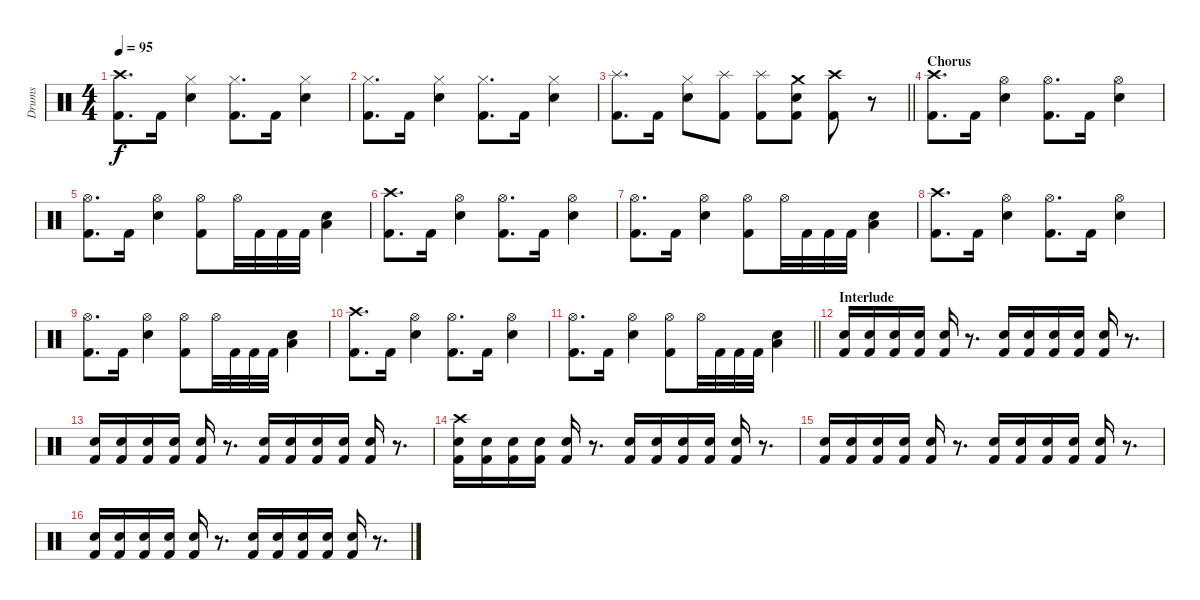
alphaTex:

\track ("Drums" "Drums") {instrument percussion}
\staff {score}
\articulation defaults
\ts (4 4)
\tempo 95
\clef neutral
\ks c
("Crash high (hit)" "Kick (hit) 2").8{d dy f} "Kick (hit) 2".16 ("Hi-Hat (closed)" "Snare (hit) 2").4 ("Hi-Hat (closed)" "Kick (hit) 2").8{d} "Kick (hit) 2".16 ("Hi-Hat (closed)" "Snare (hit) 2").4 |
("Hi-Hat (closed)" "Kick (hit) 2").8{d} "Kick (hit) 2".16 ("Hi-Hat (closed)" "Snare (hit) 2").4 ("Hi-Hat (closed)" "Kick (hit) 2").8{d} "Kick (hit) 2".16 ("Hi-Hat (closed)" "Snare (hit) 2").4 |
\barLineRight lightlight
("Splash (hit)" "Kick (hit) 2").8{d} "Kick (hit) 2".16 ("Hi-Hat (closed)" "Snare (hit) 2").8 ("Splash (hit)" "Kick (hit) 2").8 ("Splash (hit)" "Kick (hit) 2").8 ("Crash medium (hit)" "Snare (hit) 2" "Kick (hit) 2").8 ("Crash high (hit)" "Kick (hit) 2").8 r.8 |
\section ("" "Chorus")
("Crash high (hit)" "Kick (hit) 2").8{d} "Kick (hit) 2".16 ("Hi-Hat (open)" "Snare (hit) 2").4 ("Hi-Hat (open)" "Kick (hit) 2").8{d} "Kick (hit) 2".16 ("Hi-Hat (open)" "Snare (hit) 2").4 |
("Hi-Hat (open)" "Kick (hit) 2").8{d} "Kick (hit) 2".16 ("Hi-Hat (open)" "Snare (hit) 2").4 ("Hi-Hat (open)" "Kick (hit) 2").8 "Hi-Hat (open)".32 "Kick (hit) 2".32 "Kick (hit) 2".32 "Kick (hit) 2".32 ("Snare (hit) 2" "Low Floor Tom (hit)").4 |
("Crash high (hit)" "Kick (hit) 2").8{d} "Kick (hit) 2".16 ("Hi-Hat (open)" "Snare (hit) 2").4 ("Hi-Hat (open)" "Kick (hit) 2").8{d} "Kick (hit) 2".16 ("Hi-Hat (open)" "Snare (hit) 2").4 |
("Hi-Hat (open)" "Kick (hit) 2").8{d} "Kick (hit) 2".16 ("Hi-Hat (open)" "Snare (hit) 2").4 ("Hi-Hat (open)" "Kick (hit) 2").8 "Hi-Hat (open)".32 "Kick (hit) 2".32 "Kick (hit) 2".32 "Kick (hit) 2".32 ("Snare (hit) 2" "Low Floor Tom (hit)").4 |
("Crash high (hit)" "Kick (hit) 2").8{d} "Kick (hit) 2".16 ("Hi-Hat (open)" "Snare (hit) 2").4 ("Hi-Hat (open)" "Kick (hit) 2").8{d} "Kick (hit) 2".16 ("Hi-Hat (open)" "Snare (hit) 2").4 |
("Hi-Hat (open)" "Kick (hit) 2").8{d} "Kick (hit) 2".16 ("Hi-Hat (open)" "Snare (hit) 2").4 ("Hi-Hat (open)" "Kick (hit) 2").8 "Hi-Hat (open)".32 "Kick (hit) 2".32 "Kick (hit) 2".32 "Kick (hit) 2".32 ("Snare (hit) 2" "Low Floor Tom (hit)").4 |
("Crash high (hit)" "Kick (hit) 2").8{d} "Kick (hit) 2".16 ("Hi-Hat (open)" "Snare (hit) 2").4 ("Hi-Hat (open)" "Kick (hit) 2").8{d} "Kick (hit) 2".16 ("Hi-Hat (open)" "Snare (hit) 2").4 |
\barLineRight lightlight
("Hi-Hat (open)" "Kick (hit) 2").8{d} "Kick (hit) 2".16 ("Hi-Hat (open)" "Snare (hit) 2").4 ("Hi-Hat (open)" "Kick (hit) 2").8 "Hi-Hat (open)".32 "Kick (hit) 2".32 "Kick (hit) 2".32 "Kick (hit) 2".32 ("Snare (hit) 2" "Low Floor Tom (hit)").4 |
\section ("" "Interlude")
("Snare (hit) 2" "Kick (hit) 2").16 ("Snare (hit) 2" "Kick (hit) 2").16 ("Snare (hit) 2" "Kick (hit) 2").16 ("Snare (hit) 2" "Kick (hit) 2").16 ("Snare (hit) 2" "Kick (hit) 2").16 r.8{d} ("Snare (hit) 2" "Kick (hit) 2").16 ("Snare (hit) 2" "Kick (hit) 2").16 ("Snare (hit) 2" "Kick (hit) 2").16 ("Snare (hit) 2" "Kick (hit) 2").16 ("Snare (hit) 2" "Kick (hit) 2").16 r.8{d} |
("Snare (hit) 2" "Kick (hit) 2").16 ("Snare (hit) 2" "Kick (hit) 2").16 ("Snare (hit) 2" "Kick (hit) 2").16 ("Snare (hit) 2" "Kick (hit) 2").16 ("Snare (hit) 2" "Kick (hit) 2").16 r.8{d} ("Snare (hit) 2" "Kick (hit) 2").16 ("Snare (hit) 2" "Kick (hit) 2").16 ("Snare (hit) 2" "Kick (hit) 2").16 ("Snare (hit) 2" "Kick (hit) 2").16 ("Snare (hit) 2" "Kick (hit) 2").16 r.8{d} |
("Crash high (hit)" "Snare (hit) 2" "Kick (hit) 2").16 ("Snare (hit) 2" "Kick (hit) 2").16 ("Snare (hit) 2" "Kick (hit) 2").16 ("Snare (hit) 2" "Kick (hit) 2").16 ("Snare (hit) 2" "Kick (hit) 2").16 r.8{d} ("Snare (hit) 2" "Kick (hit) 2").16 ("Snare (hit) 2" "Kick (hit) 2").16 ("Snare (hit) 2" "Kick (hit) 2").16 ("Snare (hit) 2" "Kick (hit) 2").16 ("Snare (hit) 2" "Kick (hit) 2").16 r.8{d} |
("Snare (hit) 2" "Kick (hit) 2").16 ("Snare (hit) 2" "Kick (hit) 2").16 ("Snare (hit) 2" "Kick (hit) 2").16 ("Snare (hit) 2" "Kick (hit) 2").16 ("Snare (hit) 2" "Kick (hit) 2").16 r.8{d} ("Snare (hit) 2" "Kick (hit) 2").16 ("Snare (hit) 2" "Kick (hit) 2").16 ("Snare (hit) 2" "Kick (hit) 2").16 ("Snare (hit) 2" "Kick (hit) 2").16 ("Snare (hit) 2" "Kick (hit) 2").16 r.8{d} |
("Snare (hit) 2" "Kick (hit) 2").16 ("Snare (hit) 2" "Kick (hit) 2").16 ("Snare (hit) 2" "Kick (hit) 2").16 ("Snare (hit) 2" "Kick (hit) 2").16 ("Snare (hit) 2" "Kick (hit) 2").16 r.8{d} ("Snare (hit) 2" "Kick (hit) 2").16 ("Snare (hit) 2" "Kick (hit) 2").16 ("Snare (hit) 2" "Kick (hit) 2").16 ("Snare (hit) 2" "Kick (hit) 2").16 ("Snare (hit) 2" "Kick (hit) 2").16 r.8{d}
